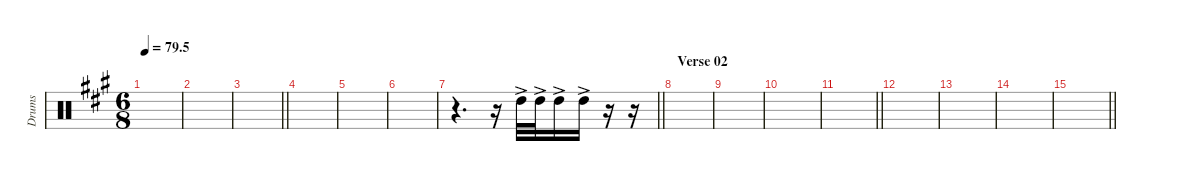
\defaultSystemsLayout 4
\hideDynamics
\bracketExtendMode nobrackets
\otherSystemsTrackNameOrientation horizontal
\track ("Tom 01" "Drums") {instrument percussion}
\staff {score}
\articulation defaults
\ts (6 8)
\tempo
79.5
\accidentals auto
\clef neutral
\ottava regular
\simile none
\scale
0.333333
\ks a
|
\scale
0.333333 |
\scale
0.333333
\barLineRight lightlight
|
\scale
0.333333 |
\scale
0.333333 |
\scale
0.333333 |
\scale
0.333333
\barLineRight lightlight
r.4{d} r.16 "High Tom (hit)"{ac acc forcenatural}.32 "High Tom (hit)"{ac acc forcenatural}.32 "High Tom (hit)"{ac acc forcenatural}.16 "High Tom (hit)"{ac acc forcenatural}.16 r.16 r.16 |
\section ("" "Verse 02")
\scale
0.333333 |
\scale
0.333333 |
\scale
0.333333 |
\scale
0.333333
\barLineRight lightlight
|
\scale
0.333333 |
\scale
0.333333 |
\scale
0.333333 |
\scale
0.333333
\barLineRight lightlight
|
\scale
0.333333
